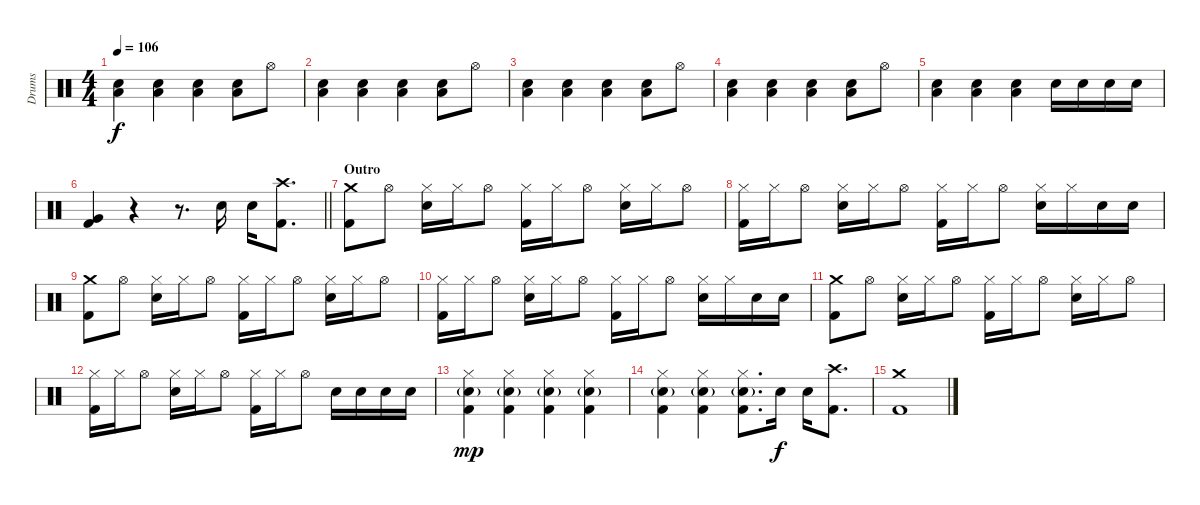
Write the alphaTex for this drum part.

\track ("Drums" "Drums") {instrument percussion}
\staff {score}
\articulation defaults
\ts (4 4)
\tempo 106
\clef neutral
\ks c
("Low Floor Tom (hit)" "Electric Snare (hit)").4{dy f} ("Low Floor Tom (hit)" "Electric Snare (hit)").4 ("Low Floor Tom (hit)" "Electric Snare (hit)").4 ("Low Floor Tom (hit)" "Electric Snare (hit)").8 "Hi-Hat (open)".8 |
("Low Floor Tom (hit)" "Electric Snare (hit)").4 ("Low Floor Tom (hit)" "Electric Snare (hit)").4 ("Low Floor Tom (hit)" "Electric Snare (hit)").4 ("Low Floor Tom (hit)" "Electric Snare (hit)").8 "Hi-Hat (open)".8 |
("Low Floor Tom (hit)" "Electric Snare (hit)").4 ("Low Floor Tom (hit)" "Electric Snare (hit)").4 ("Low Floor Tom (hit)" "Electric Snare (hit)").4 ("Low Floor Tom (hit)" "Electric Snare (hit)").8 "Hi-Hat (open)".8 |
("Low Floor Tom (hit)" "Electric Snare (hit)").4 ("Low Floor Tom (hit)" "Electric Snare (hit)").4 ("Low Floor Tom (hit)" "Electric Snare (hit)").4 ("Low Floor Tom (hit)" "Electric Snare (hit)").8 "Hi-Hat (open)".8 |
("Low Floor Tom (hit)" "Electric Snare (hit)").4 ("Low Floor Tom (hit)" "Electric Snare (hit)").4 ("Low Floor Tom (hit)" "Electric Snare (hit)").4 "Electric Snare (hit)".16 "Electric Snare (hit)".16 "Electric Snare (hit)".16 "Electric Snare (hit)".16 |
\barLineRight lightlight
("Very Low Tom (hit)" "Kick (hit) 2").4 r.4 r.8{d} "Electric Snare (hit)".16 "Electric Snare (hit)".16 ("Crash high (hit)" "Kick (hit) 2").8{d} |
\section ("" "Outro")
("Crash medium (hit)" "Kick (hit) 2").8 "Hi-Hat (open)".8 ("Hi-Hat (closed)" "Electric Snare (hit)").16 "Hi-Hat (closed)".16 "Hi-Hat (open)".8 ("Hi-Hat (closed)" "Kick (hit) 2").16 "Hi-Hat (closed)".16 "Hi-Hat (open)".8 ("Hi-Hat (closed)" "Electric Snare (hit)").16 "Hi-Hat (closed)".16 "Hi-Hat (open)".8 |
("Hi-Hat (closed)" "Kick (hit) 2").16 "Hi-Hat (closed)".16 "Hi-Hat (open)".8 ("Hi-Hat (closed)" "Electric Snare (hit)").16 "Hi-Hat (closed)".16 "Hi-Hat (open)".8 ("Hi-Hat (closed)" "Kick (hit) 2").16 "Hi-Hat (closed)".16 "Hi-Hat (open)".8 ("Hi-Hat (closed)" "Electric Snare (hit)").16 "Hi-Hat (closed)".16 "Electric Snare (hit)".16 "Electric Snare (hit)".16 |
("Crash medium (hit)" "Kick (hit) 2").8 "Hi-Hat (open)".8 ("Hi-Hat (closed)" "Electric Snare (hit)").16 "Hi-Hat (closed)".16 "Hi-Hat (open)".8 ("Hi-Hat (closed)" "Kick (hit) 2").16 "Hi-Hat (closed)".16 "Hi-Hat (open)".8 ("Hi-Hat (closed)" "Electric Snare (hit)").16 "Hi-Hat (closed)".16 "Hi-Hat (open)".8 |
("Hi-Hat (closed)" "Kick (hit) 2").16 "Hi-Hat (closed)".16 "Hi-Hat (open)".8 ("Hi-Hat (closed)" "Electric Snare (hit)").16 "Hi-Hat (closed)".16 "Hi-Hat (open)".8 ("Hi-Hat (closed)" "Kick (hit) 2").16 "Hi-Hat (closed)".16 "Hi-Hat (open)".8 ("Hi-Hat (closed)" "Electric Snare (hit)").16 "Hi-Hat (closed)".16 "Electric Snare (hit)".16 "Electric Snare (hit)".16 |
("Crash medium (hit)" "Kick (hit) 2").8 "Hi-Hat (open)".8 ("Hi-Hat (closed)" "Electric Snare (hit)").16 "Hi-Hat (closed)".16 "Hi-Hat (open)".8 ("Hi-Hat (closed)" "Kick (hit) 2").16 "Hi-Hat (closed)".16 "Hi-Hat (open)".8 ("Hi-Hat (closed)" "Electric Snare (hit)").16 "Hi-Hat (closed)".16 "Hi-Hat (open)".8 |
("Hi-Hat (closed)" "Kick (hit) 2").16 "Hi-Hat (closed)".16 "Hi-Hat (open)".8 ("Hi-Hat (closed)" "Electric Snare (hit)").16 "Hi-Hat (closed)".16 "Hi-Hat (open)".8 ("Hi-Hat (closed)" "Kick (hit) 2").16 "Hi-Hat (closed)".16 "Hi-Hat (open)".8 "Electric Snare (hit)".16 "Electric Snare (hit)".16 "Electric Snare (hit)".16 "Electric Snare (hit)".16 |
("Hi-Hat (closed)" "Electric Snare (hit)"{g} "Kick (hit) 2").4{dy mp} ("Hi-Hat (closed)" "Electric Snare (hit)"{g} "Kick (hit) 2").4 ("Hi-Hat (closed)" "Electric Snare (hit)"{g} "Kick (hit) 2").4 ("Hi-Hat (closed)" "Electric Snare (hit)"{g} "Kick (hit) 2").4 |
("Hi-Hat (closed)" "Electric Snare (hit)"{g} "Kick (hit) 2").4 ("Hi-Hat (closed)" "Electric Snare (hit)"{g} "Kick (hit) 2").4 ("Hi-Hat (closed)" "Electric Snare (hit)"{g} "Kick (hit) 2").8{d} "Electric Snare (hit)".16{dy f} "Electric Snare (hit)".16 ("Crash high (hit)" "Kick (hit) 2").8{d} |
("Crash medium (hit)" "Kick (hit) 2").1
